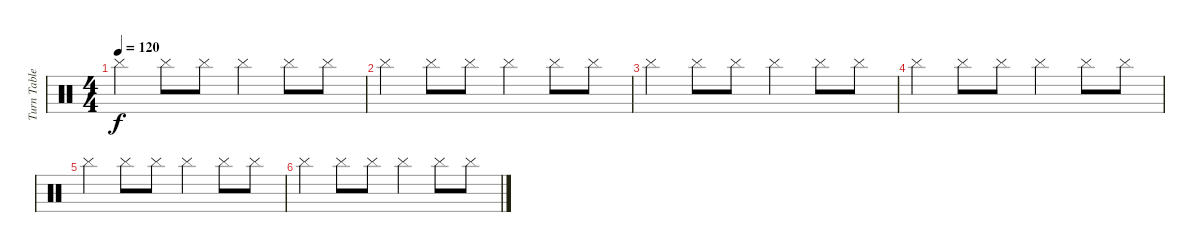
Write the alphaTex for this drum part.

\track ("Turn Tables" "Turn Table") {instrument percussion}
\staff {score}
\articulation defaults
\ts (4 4)
\tempo 120
\clef neutral
\ks c "Cymbal (hit)".4{dy f} "Cymbal (hit)".8 "Cymbal (hit)".8 "Cymbal (hit)".4 "Cymbal (hit)".8 "Cymbal (hit)".8
|
"Cymbal (hit)".4 "Cymbal (hit)".8 "Cymbal (hit)".8 "Cymbal (hit)".4 "Cymbal (hit)".8 "Cymbal (hit)".8 |
"Cymbal (hit)".4 "Cymbal (hit)".8 "Cymbal (hit)".8 "Cymbal (hit)".4 "Cymbal (hit)".8 "Cymbal (hit)".8 |
"Cymbal (hit)".4 "Cymbal (hit)".8 "Cymbal (hit)".8 "Cymbal (hit)".4 "Cymbal (hit)".8 "Cymbal (hit)".8 |
"Cymbal (hit)".4 "Cymbal (hit)".8 "Cymbal (hit)".8 "Cymbal (hit)".4 "Cymbal (hit)".8 "Cymbal (hit)".8 |
"Cymbal (hit)".4 "Cymbal (hit)".8 "Cymbal (hit)".8 "Cymbal (hit)".4 "Cymbal (hit)".8 "Cymbal (hit)".8
